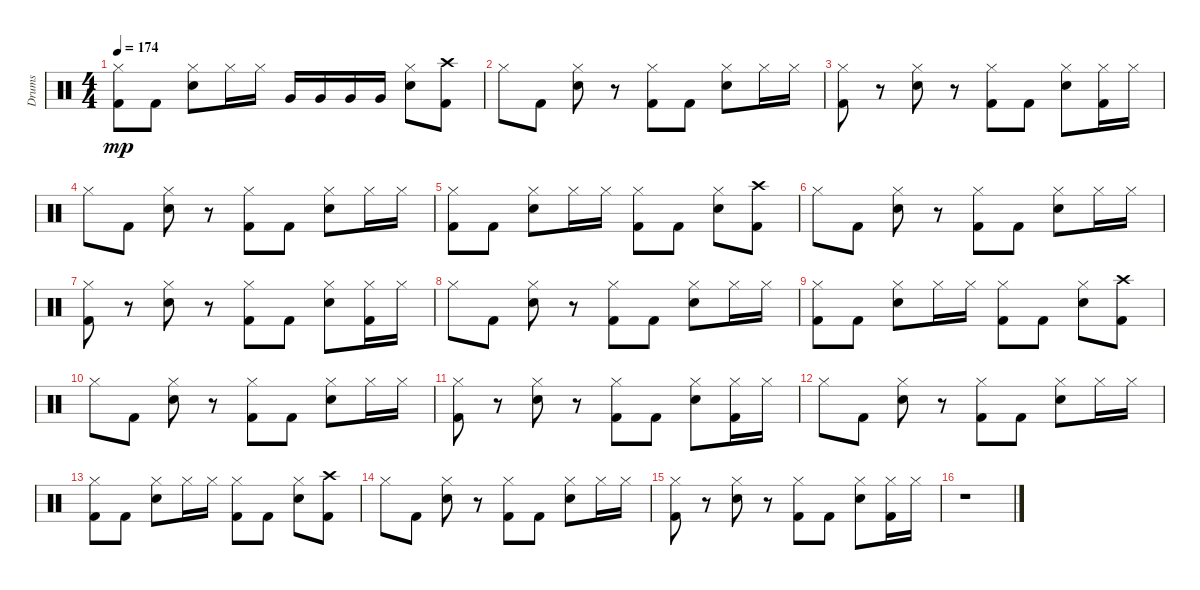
\track ("Drums" "Drums") {instrument percussion}
\staff {score}
\articulation defaults
\ts (4 4)
\tempo 174
\clef neutral
\ks c
("Kick (hit) 2" "Hi-Hat (closed)").8{dy mp} "Kick (hit) 2".8 ("Hi-Hat (closed)" "Snare (hit) 2").8 "Hi-Hat (closed)".16 "Hi-Hat (closed)".16 "Very Low Tom (hit)".16 "Very Low Tom (hit)".16 "Very Low Tom (hit)".16 "Very Low Tom (hit)".16 ("Snare (hit) 2" "Hi-Hat (closed)").8 ("Kick (hit) 2" "Crash high (hit)").8 |
"Hi-Hat (closed)".8 "Kick (hit) 2".8 ("Hi-Hat (closed)" "Snare (hit) 2").8 r.8 ("Hi-Hat (closed)" "Kick (hit) 2").8 "Kick (hit) 2".8 ("Hi-Hat (closed)" "Snare (hit) 2").8 "Hi-Hat (closed)".16 "Hi-Hat (closed)".16 |
("Kick (hit) 2" "Hi-Hat (closed)").8 r.8 ("Hi-Hat (closed)" "Snare (hit) 2").8 r.8 ("Kick (hit) 2" "Hi-Hat (closed)").8 "Kick (hit) 2".8 ("Snare (hit) 2" "Hi-Hat (closed)").8 ("Kick (hit) 2" "Hi-Hat (closed)").16 "Hi-Hat (closed)".16 |
"Hi-Hat (closed)".8 "Kick (hit) 2".8 ("Snare (hit) 2" "Hi-Hat (closed)").8 r.8 ("Hi-Hat (closed)" "Kick (hit) 2").8 "Kick (hit) 2".8 ("Snare (hit) 2" "Hi-Hat (closed)").8 "Hi-Hat (closed)".16 "Hi-Hat (closed)".16 |
("Hi-Hat (closed)" "Kick (hit) 2").8 "Kick (hit) 2".8 ("Snare (hit) 2" "Hi-Hat (closed)").8 "Hi-Hat (closed)".16 "Hi-Hat (closed)".16 ("Kick (hit) 2" "Hi-Hat (closed)").8 "Kick (hit) 2".8 ("Hi-Hat (closed)" "Snare (hit) 2").8 ("Kick (hit) 2" "Crash high (hit)").8 |
"Hi-Hat (closed)".8 "Kick (hit) 2".8 ("Snare (hit) 2" "Hi-Hat (closed)").8 r.8 ("Hi-Hat (closed)" "Kick (hit) 2").8 "Kick (hit) 2".8 ("Snare (hit) 2" "Hi-Hat (closed)").8 "Hi-Hat (closed)".16 "Hi-Hat (closed)".16 |
("Kick (hit) 2" "Hi-Hat (closed)").8 r.8 ("Snare (hit) 2" "Hi-Hat (closed)").8 r.8 ("Kick (hit) 2" "Hi-Hat (closed)").8 "Kick (hit) 2".8 ("Snare (hit) 2" "Hi-Hat (closed)").8 ("Hi-Hat (closed)" "Kick (hit) 2").16 "Hi-Hat (closed)".16 |
"Hi-Hat (closed)".8 "Kick (hit) 2".8 ("Snare (hit) 2" "Hi-Hat (closed)").8 r.8 ("Hi-Hat (closed)" "Kick (hit) 2").8 "Kick (hit) 2".8 ("Hi-Hat (closed)" "Snare (hit) 2").8 "Hi-Hat (closed)".16 "Hi-Hat (closed)".16 |
("Hi-Hat (closed)" "Kick (hit) 2").8 "Kick (hit) 2".8 ("Snare (hit) 2" "Hi-Hat (closed)").8 "Hi-Hat (closed)".16 "Hi-Hat (closed)".16 ("Hi-Hat (closed)" "Kick (hit) 2").8 "Kick (hit) 2".8 ("Snare (hit) 2" "Hi-Hat (closed)").8 ("Kick (hit) 2" "Crash high (hit)").8 |
"Hi-Hat (closed)".8 "Kick (hit) 2".8 ("Snare (hit) 2" "Hi-Hat (closed)").8 r.8 ("Kick (hit) 2" "Hi-Hat (closed)").8 "Kick (hit) 2".8 ("Snare (hit) 2" "Hi-Hat (closed)").8 "Hi-Hat (closed)".16 "Hi-Hat (closed)".16 |
("Kick (hit) 2" "Hi-Hat (closed)").8 r.8 ("Snare (hit) 2" "Hi-Hat (closed)").8 r.8 ("Kick (hit) 2" "Hi-Hat (closed)").8 "Kick (hit) 2".8 ("Snare (hit) 2" "Hi-Hat (closed)").8 ("Hi-Hat (closed)" "Kick (hit) 2").16 "Hi-Hat (closed)".16 |
"Hi-Hat (closed)".8 "Kick (hit) 2".8 ("Snare (hit) 2" "Hi-Hat (closed)").8 r.8 ("Hi-Hat (closed)" "Kick (hit) 2").8 "Kick (hit) 2".8 ("Snare (hit) 2" "Hi-Hat (closed)").8 "Hi-Hat (closed)".16 "Hi-Hat (closed)".16 |
("Hi-Hat (closed)" "Kick (hit) 2").8 "Kick (hit) 2".8 ("Hi-Hat (closed)" "Snare (hit) 2").8 "Hi-Hat (closed)".16 "Hi-Hat (closed)".16 ("Hi-Hat (closed)" "Kick (hit) 2").8 "Kick (hit) 2".8 ("Snare (hit) 2" "Hi-Hat (closed)").8 ("Kick (hit) 2" "Crash high (hit)").8 |
"Hi-Hat (closed)".8 "Kick (hit) 2".8 ("Snare (hit) 2" "Hi-Hat (closed)").8 r.8 ("Hi-Hat (closed)" "Kick (hit) 2").8 "Kick (hit) 2".8 ("Snare (hit) 2" "Hi-Hat (closed)").8 "Hi-Hat (closed)".16 "Hi-Hat (closed)".16 |
("Hi-Hat (closed)" "Kick (hit) 2").8 r.8 ("Hi-Hat (closed)" "Snare (hit) 2").8 r.8 ("Hi-Hat (closed)" "Kick (hit) 2").8 "Kick (hit) 2".8 ("Snare (hit) 2" "Hi-Hat (closed)").8 ("Kick (hit) 2" "Hi-Hat (closed)").16 "Hi-Hat (closed)".16 |
r.1
